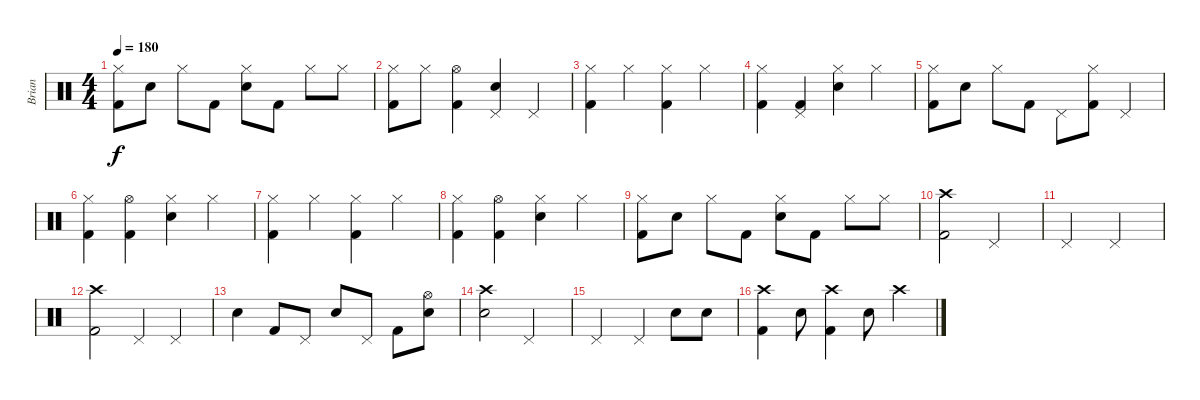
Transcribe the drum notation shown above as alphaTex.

\track ("Brian" "Brian") {instrument percussion}
\staff {score}
\articulation defaults
\ts (4 4)
\tempo 180
\clef neutral
\ks c
("Hi-Hat (closed)" "Kick (hit) 2").8{dy f} "Snare (hit) 2".8 "Hi-Hat (closed)".8 "Kick (hit) 2".8 ("Hi-Hat (closed)" "Snare (hit) 2").8 "Kick (hit) 2".8 "Hi-Hat (closed)".8 "Hi-Hat (closed)".8 |
("Hi-Hat (closed)" "Kick (hit) 2").8 "Hi-Hat (closed)".8 ("Hi-Hat (open)" "Kick (hit) 2").4 ("Pedal Hi-Hat (hit)" "Snare (hit) 2").4 "Pedal Hi-Hat (hit)".4 |
("Hi-Hat (closed)" "Kick (hit) 2").4 "Hi-Hat (closed)".4 ("Hi-Hat (closed)" "Kick (hit) 2").4 "Hi-Hat (closed)".4 |
("Hi-Hat (closed)" "Kick (hit) 2").4 ("Pedal Hi-Hat (hit)" "Kick (hit) 2").4 ("Hi-Hat (closed)" "Snare (hit) 2").4 "Hi-Hat (closed)".4 |
("Hi-Hat (closed)" "Kick (hit) 2").8 "Snare (hit) 2".8 "Hi-Hat (closed)".8 "Kick (hit) 2".8 "Pedal Hi-Hat (hit)".8 ("Hi-Hat (closed)" "Kick (hit) 2").8 "Pedal Hi-Hat (hit)".4 |
("Hi-Hat (closed)" "Kick (hit) 2").4 ("Hi-Hat (open)" "Kick (hit) 2").4 ("Hi-Hat (closed)" "Snare (hit) 2").4 "Hi-Hat (closed)".4 |
("Hi-Hat (closed)" "Kick (hit) 2").4 "Hi-Hat (closed)".4 ("Hi-Hat (closed)" "Kick (hit) 2").4 "Hi-Hat (closed)".4 |
("Hi-Hat (closed)" "Kick (hit) 2").4 ("Hi-Hat (open)" "Kick (hit) 2").4 ("Hi-Hat (closed)" "Snare (hit) 2").4 "Hi-Hat (closed)".4 |
("Hi-Hat (closed)" "Kick (hit) 2").8 "Snare (hit) 2".8 "Hi-Hat (closed)".8 "Kick (hit) 2".8 ("Hi-Hat (closed)" "Snare (hit) 2").8 "Kick (hit) 2".8 "Hi-Hat (closed)".8 "Hi-Hat (closed)".8 |
("Crash high (hit)" "Kick (hit) 2").2 "Pedal Hi-Hat (hit)".2 |
"Pedal Hi-Hat (hit)".2 "Pedal Hi-Hat (hit)".2 |
("Crash high (hit)" "Kick (hit) 2").2 "Pedal Hi-Hat (hit)".4 "Pedal Hi-Hat (hit)".4 |
"Snare (hit) 2".4 "Kick (hit) 2".8 "Pedal Hi-Hat (hit)".8 "Snare (hit) 2".8 "Pedal Hi-Hat (hit)".8 "Kick (hit) 2".8 ("Hi-Hat (open)" "Snare (hit) 2").8 |
("Crash high (hit)" "Snare (hit) 2").2 "Pedal Hi-Hat (hit)".2 |
"Pedal Hi-Hat (hit)".2 "Pedal Hi-Hat (hit)".4 "Snare (hit) 2".8 "Snare (hit) 2".8 |
("Crash high (hit)" "Kick (hit) 2").4 "Snare (hit) 2".8 ("Crash high (hit)" "Kick (hit) 2").4 "Snare (hit) 2".8 "Crash high (hit)".4
